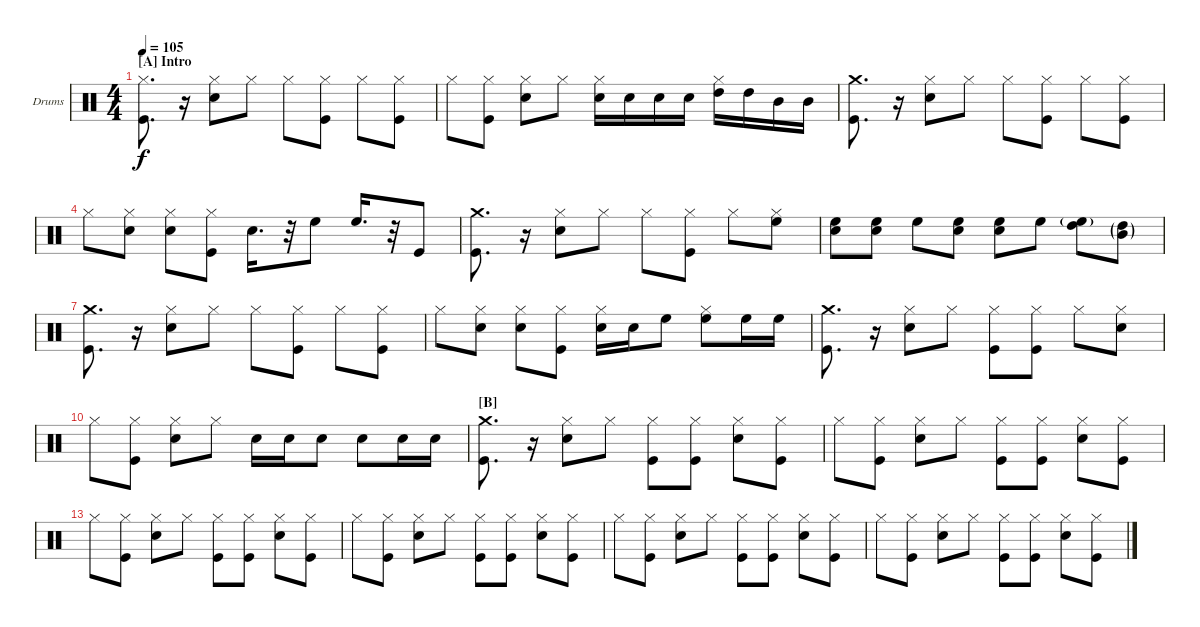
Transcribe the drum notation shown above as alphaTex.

\bracketExtendMode nobrackets
\firstSystemTrackNameOrientation horizontal
\otherSystemsTrackNameOrientation horizontal
\defaultBarNumberDisplay FirstOfSystem
\track ("Drumkit" "Drums") {instrument percussion}
\staff {score}
\articulation defaults
\ts (4 4)
\beaming (8 2 2 2 2)
\section ("A" "Intro")
\tempo 105
\clef neutral
\ks c
("Kick (hit)" "Hi-Hat (closed)").8{d dy f} r.16 ("Snare (hit) 2" "Hi-Hat (closed)").8 "Hi-Hat (closed)".8 "Hi-Hat (closed)".8 ("Kick (hit)" "Hi-Hat (closed)").8 "Hi-Hat (closed)".8 ("Kick (hit)" "Hi-Hat (closed)").8 |
"Hi-Hat (closed)".8 ("Kick (hit)" "Hi-Hat (closed)").8 ("Snare (hit) 2" "Hi-Hat (closed)").8 "Hi-Hat (closed)".8 ("Snare (hit) 2" "Hi-Hat (closed)").16 "Snare (hit) 2".16 "Snare (hit) 2".16 "Snare (hit) 2".16 ("Hi-Hat (closed)" "High Tom (hit)").16 "High Tom (hit)".16 "Mid Tom (hit)".16 "Mid Tom (hit)".16 |
("Kick (hit)" "Crash medium (hit)").8{d} r.16 ("Snare (hit) 2" "Hi-Hat (closed)").8 "Hi-Hat (closed)".8 "Hi-Hat (closed)".8 ("Kick (hit)" "Hi-Hat (closed)").8 "Hi-Hat (closed)".8 ("Kick (hit)" "Hi-Hat (closed)").8 |
"Hi-Hat (closed)".8 ("Snare (hit) 2" "Hi-Hat (closed)").8 ("Snare (hit) 2" "Hi-Hat (closed)").8 ("Kick (hit)" "Hi-Hat (closed)").8 "Snare (hit) 2".16{d} r.32 "High Floor Tom (hit)".8 "High Floor Tom (hit)".16{d} r.32 "Kick (hit)".8 |
("Kick (hit)" "Crash medium (hit)").8{d} r.16 ("Snare (hit) 2" "Hi-Hat (closed)").8 "Hi-Hat (closed)".8 "Hi-Hat (closed)".8 ("Kick (hit)" "Hi-Hat (closed)").8 "Hi-Hat (closed)".8 ("High Floor Tom (hit)" "Hi-Hat (closed)").8 |
("Snare (hit) 2" "High Floor Tom (hit)").8 ("Snare (hit) 2" "High Floor Tom (hit)").8 "High Floor Tom (hit)".8 ("Snare (hit) 2" "High Floor Tom (hit)").8 ("Snare (hit) 2" "High Floor Tom (hit)").8 "High Floor Tom (hit)".8 ("High Floor Tom (hit)"{g} "High Tom (hit)").8 ("High Tom (hit)"{g} "Mid Tom (hit)"{g}).8 |
("Kick (hit)" "Crash medium (hit)").8{d} r.16 ("Snare (hit) 2" "Hi-Hat (closed)").8 "Hi-Hat (closed)".8 "Hi-Hat (closed)".8 ("Kick (hit)" "Hi-Hat (closed)").8 "Hi-Hat (closed)".8 ("Kick (hit)" "Hi-Hat (closed)").8 |
"Hi-Hat (closed)".8 ("Snare (hit) 2" "Hi-Hat (closed)").8 ("Snare (hit) 2" "Hi-Hat (closed)").8 ("Kick (hit)" "Hi-Hat (closed)").8 ("Snare (hit) 2" "Hi-Hat (closed)").16 "Snare (hit) 2".16 "High Floor Tom (hit)".8 ("High Floor Tom (hit)" "Hi-Hat (closed)").8 "High Floor Tom (hit)".16 "High Floor Tom (hit)".16 |
("Kick (hit)" "Crash medium (hit)").8{d} r.16 ("Snare (hit) 2" "Hi-Hat (closed)").8 "Hi-Hat (closed)".8 ("Kick (hit)" "Hi-Hat (closed)").8 ("Kick (hit)" "Hi-Hat (closed)").8 "Hi-Hat (closed)".8 ("Snare (hit) 2" "Hi-Hat (closed)").8 |
"Hi-Hat (closed)".8 ("Kick (hit)" "Hi-Hat (closed)").8 ("Snare (hit) 2" "Hi-Hat (closed)").8 "Hi-Hat (closed)".8 "Snare (hit) 2".16 "Snare (hit) 2".16 "Snare (hit) 2".8 "Snare (hit) 2".8 "Snare (hit) 2".16 "Snare (hit) 2".16 |
\section ("B" "")
("Kick (hit)" "Crash medium (hit)").8{d} r.16 ("Snare (hit) 2" "Hi-Hat (closed)").8 "Hi-Hat (closed)".8 ("Kick (hit)" "Hi-Hat (closed)").8 ("Kick (hit)" "Hi-Hat (closed)").8 ("Snare (hit) 2" "Hi-Hat (closed)").8 ("Kick (hit)" "Hi-Hat (closed)").8 |
"Hi-Hat (closed)".8 ("Kick (hit)" "Hi-Hat (closed)").8 ("Snare (hit) 2" "Hi-Hat (closed)").8 "Hi-Hat (closed)".8 ("Kick (hit)" "Hi-Hat (closed)").8 ("Kick (hit)" "Hi-Hat (closed)").8 ("Snare (hit) 2" "Hi-Hat (closed)").8 ("Kick (hit)" "Hi-Hat (closed)").8 |
"Hi-Hat (closed)".8 ("Kick (hit)" "Hi-Hat (closed)").8 ("Snare (hit) 2" "Hi-Hat (closed)").8 "Hi-Hat (closed)".8 ("Kick (hit)" "Hi-Hat (closed)").8 ("Kick (hit)" "Hi-Hat (closed)").8 ("Snare (hit) 2" "Hi-Hat (closed)").8 ("Kick (hit)" "Hi-Hat (closed)").8 |
"Hi-Hat (closed)".8 ("Kick (hit)" "Hi-Hat (closed)").8 ("Snare (hit) 2" "Hi-Hat (closed)").8 "Hi-Hat (closed)".8 ("Kick (hit)" "Hi-Hat (closed)").8 ("Kick (hit)" "Hi-Hat (closed)").8 ("Snare (hit) 2" "Hi-Hat (closed)").8 ("Kick (hit)" "Hi-Hat (closed)").8 |
"Hi-Hat (closed)".8 ("Kick (hit)" "Hi-Hat (closed)").8 ("Snare (hit) 2" "Hi-Hat (closed)").8 "Hi-Hat (closed)".8 ("Kick (hit)" "Hi-Hat (closed)").8 ("Kick (hit)" "Hi-Hat (closed)").8 ("Snare (hit) 2" "Hi-Hat (closed)").8 ("Kick (hit)" "Hi-Hat (closed)").8 |
"Hi-Hat (closed)".8 ("Kick (hit)" "Hi-Hat (closed)").8 ("Snare (hit) 2" "Hi-Hat (closed)").8 "Hi-Hat (closed)".8 ("Kick (hit)" "Hi-Hat (closed)").8 ("Kick (hit)" "Hi-Hat (closed)").8 ("Snare (hit) 2" "Hi-Hat (closed)").8 ("Kick (hit)" "Hi-Hat (closed)").8
